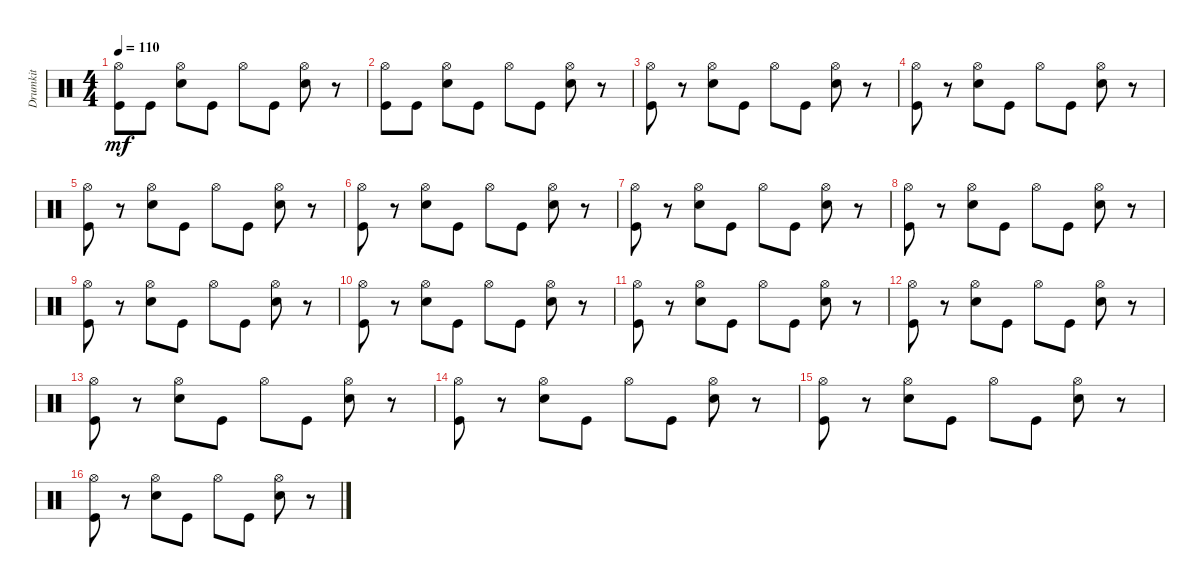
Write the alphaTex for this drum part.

\track ("Drumkit" "Drumkit") {instrument percussion}
\staff {score}
\articulation defaults
\ts (4 4)
\tempo 110
\clef neutral
\ks c
("Kick (hit)" "Hi-Hat (open)").8{dy mf} "Kick (hit)".8 ("Hi-Hat (open)" "Snare (hit) 2").8 "Kick (hit)".8 "Hi-Hat (open)".8 "Kick (hit)".8 ("Snare (hit) 2" "Hi-Hat (open)").8 r.8 |
("Kick (hit)" "Hi-Hat (open)").8 "Kick (hit)".8 ("Hi-Hat (open)" "Snare (hit) 2").8 "Kick (hit)".8 "Hi-Hat (open)".8 "Kick (hit)".8 ("Snare (hit) 2" "Hi-Hat (open)").8 r.8 |
("Kick (hit)" "Hi-Hat (open)").8 r.8 ("Hi-Hat (open)" "Snare (hit) 2").8 "Kick (hit)".8 "Hi-Hat (open)".8 "Kick (hit)".8 ("Snare (hit) 2" "Hi-Hat (open)").8 r.8 |
("Kick (hit)" "Hi-Hat (open)").8 r.8 ("Hi-Hat (open)" "Snare (hit) 2").8 "Kick (hit)".8 "Hi-Hat (open)".8 "Kick (hit)".8 ("Snare (hit) 2" "Hi-Hat (open)").8 r.8 |
("Kick (hit)" "Hi-Hat (open)").8 r.8 ("Hi-Hat (open)" "Snare (hit) 2").8 "Kick (hit)".8 "Hi-Hat (open)".8 "Kick (hit)".8 ("Snare (hit) 2" "Hi-Hat (open)").8 r.8 |
("Kick (hit)" "Hi-Hat (open)").8 r.8 ("Hi-Hat (open)" "Snare (hit) 2").8 "Kick (hit)".8 "Hi-Hat (open)".8 "Kick (hit)".8 ("Snare (hit) 2" "Hi-Hat (open)").8 r.8 |
("Kick (hit)" "Hi-Hat (open)").8 r.8 ("Hi-Hat (open)" "Snare (hit) 2").8 "Kick (hit)".8 "Hi-Hat (open)".8 "Kick (hit)".8 ("Snare (hit) 2" "Hi-Hat (open)").8 r.8 |
("Kick (hit)" "Hi-Hat (open)").8 r.8 ("Hi-Hat (open)" "Snare (hit) 2").8 "Kick (hit)".8 "Hi-Hat (open)".8 "Kick (hit)".8 ("Snare (hit) 2" "Hi-Hat (open)").8 r.8 |
("Kick (hit)" "Hi-Hat (open)").8 r.8 ("Hi-Hat (open)" "Snare (hit) 2").8 "Kick (hit)".8 "Hi-Hat (open)".8 "Kick (hit)".8 ("Snare (hit) 2" "Hi-Hat (open)").8 r.8 |
("Kick (hit)" "Hi-Hat (open)").8 r.8 ("Hi-Hat (open)" "Snare (hit) 2").8 "Kick (hit)".8 "Hi-Hat (open)".8 "Kick (hit)".8 ("Snare (hit) 2" "Hi-Hat (open)").8 r.8 |
("Kick (hit)" "Hi-Hat (open)").8 r.8 ("Hi-Hat (open)" "Snare (hit) 2").8 "Kick (hit)".8 "Hi-Hat (open)".8 "Kick (hit)".8 ("Snare (hit) 2" "Hi-Hat (open)").8 r.8 |
("Kick (hit)" "Hi-Hat (open)").8 r.8 ("Hi-Hat (open)" "Snare (hit) 2").8 "Kick (hit)".8 "Hi-Hat (open)".8 "Kick (hit)".8 ("Snare (hit) 2" "Hi-Hat (open)").8 r.8 |
("Kick (hit)" "Hi-Hat (open)").8 r.8 ("Hi-Hat (open)" "Snare (hit) 2").8 "Kick (hit)".8 "Hi-Hat (open)".8 "Kick (hit)".8 ("Snare (hit) 2" "Hi-Hat (open)").8 r.8 |
("Kick (hit)" "Hi-Hat (open)").8 r.8 ("Hi-Hat (open)" "Snare (hit) 2").8 "Kick (hit)".8 "Hi-Hat (open)".8 "Kick (hit)".8 ("Snare (hit) 2" "Hi-Hat (open)").8 r.8 |
("Kick (hit)" "Hi-Hat (open)").8 r.8 ("Hi-Hat (open)" "Snare (hit) 2").8 "Kick (hit)".8 "Hi-Hat (open)".8 "Kick (hit)".8 ("Snare (hit) 2" "Hi-Hat (open)").8 r.8 |
("Kick (hit)" "Hi-Hat (open)").8 r.8 ("Hi-Hat (open)" "Snare (hit) 2").8 "Kick (hit)".8 "Hi-Hat (open)".8 "Kick (hit)".8 ("Snare (hit) 2" "Hi-Hat (open)").8 r.8
